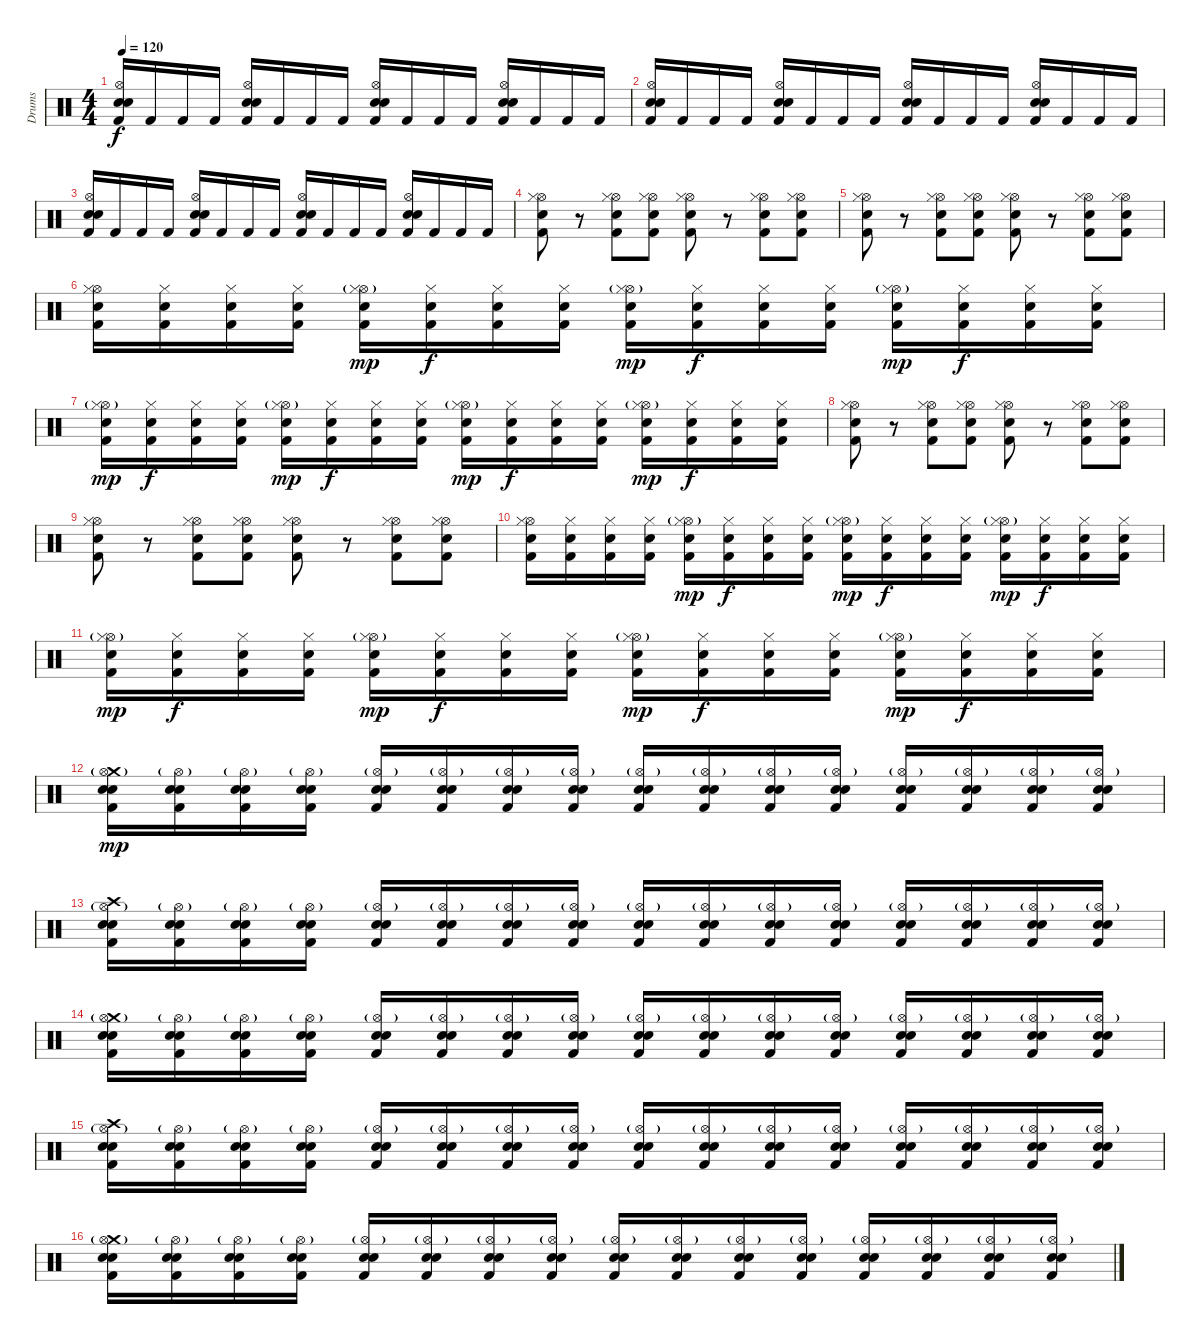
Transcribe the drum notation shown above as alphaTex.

\track ("Drums" "Drums") {instrument percussion}
\staff {score}
\articulation defaults
\ts (4 4)
\tempo 120
\clef neutral
\ks c
("Kick (hit) 2" "Hi-Hat (open)" "Electric Snare (hit)" "Snare (hit) 2").16{dy f} "Kick (hit) 2".16 "Kick (hit) 2".16 "Kick (hit) 2".16 ("Kick (hit) 2" "Hi-Hat (open)" "Electric Snare (hit)" "Snare (hit) 2").16 "Kick (hit) 2".16 "Kick (hit) 2".16 "Kick (hit) 2".16 ("Kick (hit) 2" "Hi-Hat (open)" "Electric Snare (hit)" "Snare (hit) 2").16 "Kick (hit) 2".16 "Kick (hit) 2".16 "Kick (hit) 2".16 ("Kick (hit) 2" "Hi-Hat (open)" "Electric Snare (hit)" "Snare (hit) 2").16 "Kick (hit) 2".16 "Kick (hit) 2".16 "Kick (hit) 2".16 |
("Kick (hit) 2" "Hi-Hat (open)" "Electric Snare (hit)" "Snare (hit) 2").16 "Kick (hit) 2".16 "Kick (hit) 2".16 "Kick (hit) 2".16 ("Kick (hit) 2" "Hi-Hat (open)" "Electric Snare (hit)" "Snare (hit) 2").16 "Kick (hit) 2".16 "Kick (hit) 2".16 "Kick (hit) 2".16 ("Kick (hit) 2" "Hi-Hat (open)" "Electric Snare (hit)" "Snare (hit) 2").16 "Kick (hit) 2".16 "Kick (hit) 2".16 "Kick (hit) 2".16 ("Kick (hit) 2" "Hi-Hat (open)" "Electric Snare (hit)" "Snare (hit) 2").16 "Kick (hit) 2".16 "Kick (hit) 2".16 "Kick (hit) 2".16 |
("Kick (hit) 2" "Hi-Hat (open)" "Electric Snare (hit)" "Snare (hit) 2").16 "Kick (hit) 2".16 "Kick (hit) 2".16 "Kick (hit) 2".16 ("Kick (hit) 2" "Hi-Hat (open)" "Electric Snare (hit)" "Snare (hit) 2").16 "Kick (hit) 2".16 "Kick (hit) 2".16 "Kick (hit) 2".16 ("Kick (hit) 2" "Hi-Hat (open)" "Electric Snare (hit)" "Snare (hit) 2").16 "Kick (hit) 2".16 "Kick (hit) 2".16 "Kick (hit) 2".16 ("Kick (hit) 2" "Hi-Hat (open)" "Electric Snare (hit)" "Snare (hit) 2").16 "Kick (hit) 2".16 "Kick (hit) 2".16 "Kick (hit) 2".16 |
("Kick (hit) 2" "Snare (hit) 2" "Hi-Hat (open)" "Hi-Hat (closed)").8 r.8 ("Kick (hit) 2" "Snare (hit) 2" "Hi-Hat (open)" "Hi-Hat (closed)").8 ("Kick (hit) 2" "Snare (hit) 2" "Hi-Hat (open)" "Hi-Hat (closed)").8 ("Kick (hit) 2" "Snare (hit) 2" "Hi-Hat (open)" "Hi-Hat (closed)").8 r.8 ("Kick (hit) 2" "Snare (hit) 2" "Hi-Hat (open)" "Hi-Hat (closed)").8 ("Kick (hit) 2" "Snare (hit) 2" "Hi-Hat (open)" "Hi-Hat (closed)").8 |
("Kick (hit) 2" "Snare (hit) 2" "Hi-Hat (open)" "Hi-Hat (closed)").8 r.8 ("Kick (hit) 2" "Snare (hit) 2" "Hi-Hat (open)" "Hi-Hat (closed)").8 ("Kick (hit) 2" "Snare (hit) 2" "Hi-Hat (open)" "Hi-Hat (closed)").8 ("Kick (hit) 2" "Snare (hit) 2" "Hi-Hat (open)" "Hi-Hat (closed)").8 r.8 ("Kick (hit) 2" "Snare (hit) 2" "Hi-Hat (open)" "Hi-Hat (closed)").8 ("Kick (hit) 2" "Snare (hit) 2" "Hi-Hat (open)" "Hi-Hat (closed)").8 |
("Kick (hit) 2" "Snare (hit) 2" "Hi-Hat (open)" "Hi-Hat (closed)").16 ("Kick (hit) 2" "Snare (hit) 2" "Hi-Hat (closed)").16 ("Kick (hit) 2" "Snare (hit) 2" "Hi-Hat (closed)").16 ("Kick (hit) 2" "Snare (hit) 2" "Hi-Hat (closed)").16 ("Kick (hit) 2" "Snare (hit) 2" "Hi-Hat (open)"{g} "Hi-Hat (closed)").16{dy mp} ("Kick (hit) 2" "Snare (hit) 2" "Hi-Hat (closed)").16{dy f} ("Kick (hit) 2" "Snare (hit) 2" "Hi-Hat (closed)").16 ("Kick (hit) 2" "Snare (hit) 2" "Hi-Hat (closed)").16 ("Kick (hit) 2" "Snare (hit) 2" "Hi-Hat (open)"{g} "Hi-Hat (closed)").16{dy mp} ("Kick (hit) 2" "Snare (hit) 2" "Hi-Hat (closed)").16{dy f} ("Kick (hit) 2" "Snare (hit) 2" "Hi-Hat (closed)").16 ("Kick (hit) 2" "Snare (hit) 2" "Hi-Hat (closed)").16 ("Kick (hit) 2" "Snare (hit) 2" "Hi-Hat (open)"{g} "Hi-Hat (closed)").16{dy mp} ("Kick (hit) 2" "Snare (hit) 2" "Hi-Hat (closed)").16{dy f} ("Kick (hit) 2" "Snare (hit) 2" "Hi-Hat (closed)").16 ("Kick (hit) 2" "Snare (hit) 2" "Hi-Hat (closed)").16 |
("Kick (hit) 2" "Snare (hit) 2" "Hi-Hat (open)"{g} "Hi-Hat (closed)").16{dy mp} ("Kick (hit) 2" "Snare (hit) 2" "Hi-Hat (closed)").16{dy f} ("Kick (hit) 2" "Snare (hit) 2" "Hi-Hat (closed)").16 ("Kick (hit) 2" "Snare (hit) 2" "Hi-Hat (closed)").16 ("Kick (hit) 2" "Snare (hit) 2" "Hi-Hat (open)"{g} "Hi-Hat (closed)").16{dy mp} ("Kick (hit) 2" "Snare (hit) 2" "Hi-Hat (closed)").16{dy f} ("Kick (hit) 2" "Snare (hit) 2" "Hi-Hat (closed)").16 ("Kick (hit) 2" "Snare (hit) 2" "Hi-Hat (closed)").16 ("Kick (hit) 2" "Snare (hit) 2" "Hi-Hat (open)"{g} "Hi-Hat (closed)").16{dy mp} ("Kick (hit) 2" "Snare (hit) 2" "Hi-Hat (closed)").16{dy f} ("Kick (hit) 2" "Snare (hit) 2" "Hi-Hat (closed)").16 ("Kick (hit) 2" "Snare (hit) 2" "Hi-Hat (closed)").16 ("Kick (hit) 2" "Snare (hit) 2" "Hi-Hat (open)"{g} "Hi-Hat (closed)").16{dy mp} ("Kick (hit) 2" "Snare (hit) 2" "Hi-Hat (closed)").16{dy f} ("Kick (hit) 2" "Snare (hit) 2" "Hi-Hat (closed)").16 ("Kick (hit) 2" "Snare (hit) 2" "Hi-Hat (closed)").16 |
("Kick (hit) 2" "Snare (hit) 2" "Hi-Hat (open)" "Hi-Hat (closed)").8 r.8 ("Kick (hit) 2" "Snare (hit) 2" "Hi-Hat (open)" "Hi-Hat (closed)").8 ("Kick (hit) 2" "Snare (hit) 2" "Hi-Hat (open)" "Hi-Hat (closed)").8 ("Kick (hit) 2" "Snare (hit) 2" "Hi-Hat (open)" "Hi-Hat (closed)").8 r.8 ("Kick (hit) 2" "Snare (hit) 2" "Hi-Hat (open)" "Hi-Hat (closed)").8 ("Kick (hit) 2" "Snare (hit) 2" "Hi-Hat (open)" "Hi-Hat (closed)").8 |
("Kick (hit) 2" "Snare (hit) 2" "Hi-Hat (open)" "Hi-Hat (closed)").8 r.8 ("Kick (hit) 2" "Snare (hit) 2" "Hi-Hat (open)" "Hi-Hat (closed)").8 ("Kick (hit) 2" "Snare (hit) 2" "Hi-Hat (open)" "Hi-Hat (closed)").8 ("Kick (hit) 2" "Snare (hit) 2" "Hi-Hat (open)" "Hi-Hat (closed)").8 r.8 ("Kick (hit) 2" "Snare (hit) 2" "Hi-Hat (open)" "Hi-Hat (closed)").8 ("Kick (hit) 2" "Snare (hit) 2" "Hi-Hat (open)" "Hi-Hat (closed)").8 |
("Kick (hit) 2" "Snare (hit) 2" "Hi-Hat (open)" "Hi-Hat (closed)").16 ("Kick (hit) 2" "Snare (hit) 2" "Hi-Hat (closed)").16 ("Kick (hit) 2" "Snare (hit) 2" "Hi-Hat (closed)").16 ("Kick (hit) 2" "Snare (hit) 2" "Hi-Hat (closed)").16 ("Kick (hit) 2" "Snare (hit) 2" "Hi-Hat (open)"{g} "Hi-Hat (closed)").16{dy mp} ("Kick (hit) 2" "Snare (hit) 2" "Hi-Hat (closed)").16{dy f} ("Kick (hit) 2" "Snare (hit) 2" "Hi-Hat (closed)").16 ("Kick (hit) 2" "Snare (hit) 2" "Hi-Hat (closed)").16 ("Kick (hit) 2" "Snare (hit) 2" "Hi-Hat (open)"{g} "Hi-Hat (closed)").16{dy mp} ("Kick (hit) 2" "Snare (hit) 2" "Hi-Hat (closed)").16{dy f} ("Kick (hit) 2" "Snare (hit) 2" "Hi-Hat (closed)").16 ("Kick (hit) 2" "Snare (hit) 2" "Hi-Hat (closed)").16 ("Kick (hit) 2" "Snare (hit) 2" "Hi-Hat (open)"{g} "Hi-Hat (closed)").16{dy mp} ("Kick (hit) 2" "Snare (hit) 2" "Hi-Hat (closed)").16{dy f} ("Kick (hit) 2" "Snare (hit) 2" "Hi-Hat (closed)").16 ("Kick (hit) 2" "Snare (hit) 2" "Hi-Hat (closed)").16 |
("Kick (hit) 2" "Snare (hit) 2" "Hi-Hat (open)"{g} "Hi-Hat (closed)").16{dy mp} ("Kick (hit) 2" "Snare (hit) 2" "Hi-Hat (closed)").16{dy f} ("Kick (hit) 2" "Snare (hit) 2" "Hi-Hat (closed)").16 ("Kick (hit) 2" "Snare (hit) 2" "Hi-Hat (closed)").16 ("Kick (hit) 2" "Snare (hit) 2" "Hi-Hat (open)"{g} "Hi-Hat (closed)").16{dy mp} ("Kick (hit) 2" "Snare (hit) 2" "Hi-Hat (closed)").16{dy f} ("Kick (hit) 2" "Snare (hit) 2" "Hi-Hat (closed)").16 ("Kick (hit) 2" "Snare (hit) 2" "Hi-Hat (closed)").16 ("Kick (hit) 2" "Snare (hit) 2" "Hi-Hat (open)"{g} "Hi-Hat (closed)").16{dy mp} ("Kick (hit) 2" "Snare (hit) 2" "Hi-Hat (closed)").16{dy f} ("Kick (hit) 2" "Snare (hit) 2" "Hi-Hat (closed)").16 ("Kick (hit) 2" "Snare (hit) 2" "Hi-Hat (closed)").16 ("Kick (hit) 2" "Snare (hit) 2" "Hi-Hat (open)"{g} "Hi-Hat (closed)").16{dy mp} ("Kick (hit) 2" "Snare (hit) 2" "Hi-Hat (closed)").16{dy f} ("Kick (hit) 2" "Snare (hit) 2" "Hi-Hat (closed)").16 ("Kick (hit) 2" "Snare (hit) 2" "Hi-Hat (closed)").16 |
("Kick (hit) 2" "Crash medium (hit)" "Hi-Hat (open)"{g} "Electric Snare (hit)" "Snare (hit) 2").16{dy mp} ("Kick (hit) 2" "Hi-Hat (open)"{g} "Electric Snare (hit)" "Snare (hit) 2").16 ("Kick (hit) 2" "Hi-Hat (open)"{g} "Electric Snare (hit)" "Snare (hit) 2").16 ("Kick (hit) 2" "Hi-Hat (open)"{g} "Electric Snare (hit)" "Snare (hit) 2").16 ("Kick (hit) 2" "Hi-Hat (open)"{g} "Electric Snare (hit)" "Snare (hit) 2").16 ("Kick (hit) 2" "Hi-Hat (open)"{g} "Electric Snare (hit)" "Snare (hit) 2").16 ("Kick (hit) 2" "Hi-Hat (open)"{g} "Electric Snare (hit)" "Snare (hit) 2").16 ("Kick (hit) 2" "Hi-Hat (open)"{g} "Electric Snare (hit)" "Snare (hit) 2").16 ("Kick (hit) 2" "Hi-Hat (open)"{g} "Electric Snare (hit)" "Snare (hit) 2").16 ("Kick (hit) 2" "Hi-Hat (open)"{g} "Electric Snare (hit)" "Snare (hit) 2").16 ("Kick (hit) 2" "Hi-Hat (open)"{g} "Electric Snare (hit)" "Snare (hit) 2").16 ("Kick (hit) 2" "Hi-Hat (open)"{g} "Electric Snare (hit)" "Snare (hit) 2").16 ("Kick (hit) 2" "Hi-Hat (open)"{g} "Electric Snare (hit)" "Snare (hit) 2").16 ("Kick (hit) 2" "Hi-Hat (open)"{g} "Electric Snare (hit)" "Snare (hit) 2").16 ("Kick (hit) 2" "Hi-Hat (open)"{g} "Electric Snare (hit)" "Snare (hit) 2").16 ("Kick (hit) 2" "Hi-Hat (open)"{g} "Electric Snare (hit)" "Snare (hit) 2").16 |
("Kick (hit) 2" "Crash high (hit)" "Hi-Hat (open)"{g} "Electric Snare (hit)" "Snare (hit) 2").16 ("Kick (hit) 2" "Hi-Hat (open)"{g} "Electric Snare (hit)" "Snare (hit) 2").16 ("Kick (hit) 2" "Hi-Hat (open)"{g} "Electric Snare (hit)" "Snare (hit) 2").16 ("Kick (hit) 2" "Hi-Hat (open)"{g} "Electric Snare (hit)" "Snare (hit) 2").16 ("Kick (hit) 2" "Hi-Hat (open)"{g} "Electric Snare (hit)" "Snare (hit) 2").16 ("Kick (hit) 2" "Hi-Hat (open)"{g} "Electric Snare (hit)" "Snare (hit) 2").16 ("Kick (hit) 2" "Hi-Hat (open)"{g} "Electric Snare (hit)" "Snare (hit) 2").16 ("Kick (hit) 2" "Hi-Hat (open)"{g} "Electric Snare (hit)" "Snare (hit) 2").16 ("Kick (hit) 2" "Hi-Hat (open)"{g} "Electric Snare (hit)" "Snare (hit) 2").16 ("Kick (hit) 2" "Hi-Hat (open)"{g} "Electric Snare (hit)" "Snare (hit) 2").16 ("Kick (hit) 2" "Hi-Hat (open)"{g} "Electric Snare (hit)" "Snare (hit) 2").16 ("Kick (hit) 2" "Hi-Hat (open)"{g} "Electric Snare (hit)" "Snare (hit) 2").16 ("Kick (hit) 2" "Hi-Hat (open)"{g} "Electric Snare (hit)" "Snare (hit) 2").16 ("Kick (hit) 2" "Hi-Hat (open)"{g} "Electric Snare (hit)" "Snare (hit) 2").16 ("Kick (hit) 2" "Hi-Hat (open)"{g} "Electric Snare (hit)" "Snare (hit) 2").16 ("Kick (hit) 2" "Hi-Hat (open)"{g} "Electric Snare (hit)" "Snare (hit) 2").16 |
("Kick (hit) 2" "Crash medium (hit)" "Hi-Hat (open)"{g} "Electric Snare (hit)" "Snare (hit) 2").16 ("Kick (hit) 2" "Hi-Hat (open)"{g} "Electric Snare (hit)" "Snare (hit) 2").16 ("Kick (hit) 2" "Hi-Hat (open)"{g} "Electric Snare (hit)" "Snare (hit) 2").16 ("Kick (hit) 2" "Hi-Hat (open)"{g} "Electric Snare (hit)" "Snare (hit) 2").16 ("Kick (hit) 2" "Hi-Hat (open)"{g} "Electric Snare (hit)" "Snare (hit) 2").16 ("Kick (hit) 2" "Hi-Hat (open)"{g} "Electric Snare (hit)" "Snare (hit) 2").16 ("Kick (hit) 2" "Hi-Hat (open)"{g} "Electric Snare (hit)" "Snare (hit) 2").16 ("Kick (hit) 2" "Hi-Hat (open)"{g} "Electric Snare (hit)" "Snare (hit) 2").16 ("Kick (hit) 2" "Hi-Hat (open)"{g} "Electric Snare (hit)" "Snare (hit) 2").16 ("Kick (hit) 2" "Hi-Hat (open)"{g} "Electric Snare (hit)" "Snare (hit) 2").16 ("Kick (hit) 2" "Hi-Hat (open)"{g} "Electric Snare (hit)" "Snare (hit) 2").16 ("Kick (hit) 2" "Hi-Hat (open)"{g} "Electric Snare (hit)" "Snare (hit) 2").16 ("Kick (hit) 2" "Hi-Hat (open)"{g} "Electric Snare (hit)" "Snare (hit) 2").16 ("Kick (hit) 2" "Hi-Hat (open)"{g} "Electric Snare (hit)" "Snare (hit) 2").16 ("Kick (hit) 2" "Hi-Hat (open)"{g} "Electric Snare (hit)" "Snare (hit) 2").16 ("Kick (hit) 2" "Hi-Hat (open)"{g} "Electric Snare (hit)" "Snare (hit) 2").16 |
("Kick (hit) 2" "Crash high (hit)" "Hi-Hat (open)"{g} "Electric Snare (hit)" "Snare (hit) 2").16 ("Kick (hit) 2" "Hi-Hat (open)"{g} "Electric Snare (hit)" "Snare (hit) 2").16 ("Kick (hit) 2" "Hi-Hat (open)"{g} "Electric Snare (hit)" "Snare (hit) 2").16 ("Kick (hit) 2" "Hi-Hat (open)"{g} "Electric Snare (hit)" "Snare (hit) 2").16 ("Kick (hit) 2" "Hi-Hat (open)"{g} "Electric Snare (hit)" "Snare (hit) 2").16 ("Kick (hit) 2" "Hi-Hat (open)"{g} "Electric Snare (hit)" "Snare (hit) 2").16 ("Kick (hit) 2" "Hi-Hat (open)"{g} "Electric Snare (hit)" "Snare (hit) 2").16 ("Kick (hit) 2" "Hi-Hat (open)"{g} "Electric Snare (hit)" "Snare (hit) 2").16 ("Kick (hit) 2" "Hi-Hat (open)"{g} "Electric Snare (hit)" "Snare (hit) 2").16 ("Kick (hit) 2" "Hi-Hat (open)"{g} "Electric Snare (hit)" "Snare (hit) 2").16 ("Kick (hit) 2" "Hi-Hat (open)"{g} "Electric Snare (hit)" "Snare (hit) 2").16 ("Kick (hit) 2" "Hi-Hat (open)"{g} "Electric Snare (hit)" "Snare (hit) 2").16 ("Kick (hit) 2" "Hi-Hat (open)"{g} "Electric Snare (hit)" "Snare (hit) 2").16 ("Kick (hit) 2" "Hi-Hat (open)"{g} "Electric Snare (hit)" "Snare (hit) 2").16 ("Kick (hit) 2" "Hi-Hat (open)"{g} "Electric Snare (hit)" "Snare (hit) 2").16 ("Kick (hit) 2" "Hi-Hat (open)"{g} "Electric Snare (hit)" "Snare (hit) 2").16 |
("Kick (hit) 2" "Crash medium (hit)" "Hi-Hat (open)"{g} "Electric Snare (hit)" "Snare (hit) 2").16 ("Kick (hit) 2" "Hi-Hat (open)"{g} "Electric Snare (hit)" "Snare (hit) 2").16 ("Kick (hit) 2" "Hi-Hat (open)"{g} "Electric Snare (hit)" "Snare (hit) 2").16 ("Kick (hit) 2" "Hi-Hat (open)"{g} "Electric Snare (hit)" "Snare (hit) 2").16 ("Kick (hit) 2" "Hi-Hat (open)"{g} "Electric Snare (hit)" "Snare (hit) 2").16 ("Kick (hit) 2" "Hi-Hat (open)"{g} "Electric Snare (hit)" "Snare (hit) 2").16 ("Kick (hit) 2" "Hi-Hat (open)"{g} "Electric Snare (hit)" "Snare (hit) 2").16 ("Kick (hit) 2" "Hi-Hat (open)"{g} "Electric Snare (hit)" "Snare (hit) 2").16 ("Kick (hit) 2" "Hi-Hat (open)"{g} "Electric Snare (hit)" "Snare (hit) 2").16 ("Kick (hit) 2" "Hi-Hat (open)"{g} "Electric Snare (hit)" "Snare (hit) 2").16 ("Kick (hit) 2" "Hi-Hat (open)"{g} "Electric Snare (hit)" "Snare (hit) 2").16 ("Kick (hit) 2" "Hi-Hat (open)"{g} "Electric Snare (hit)" "Snare (hit) 2").16 ("Kick (hit) 2" "Hi-Hat (open)"{g} "Electric Snare (hit)" "Snare (hit) 2").16 ("Kick (hit) 2" "Hi-Hat (open)"{g} "Electric Snare (hit)" "Snare (hit) 2").16 ("Kick (hit) 2" "Hi-Hat (open)"{g} "Electric Snare (hit)" "Snare (hit) 2").16 ("Kick (hit) 2" "Hi-Hat (open)"{g} "Electric Snare (hit)" "Snare (hit) 2").16
